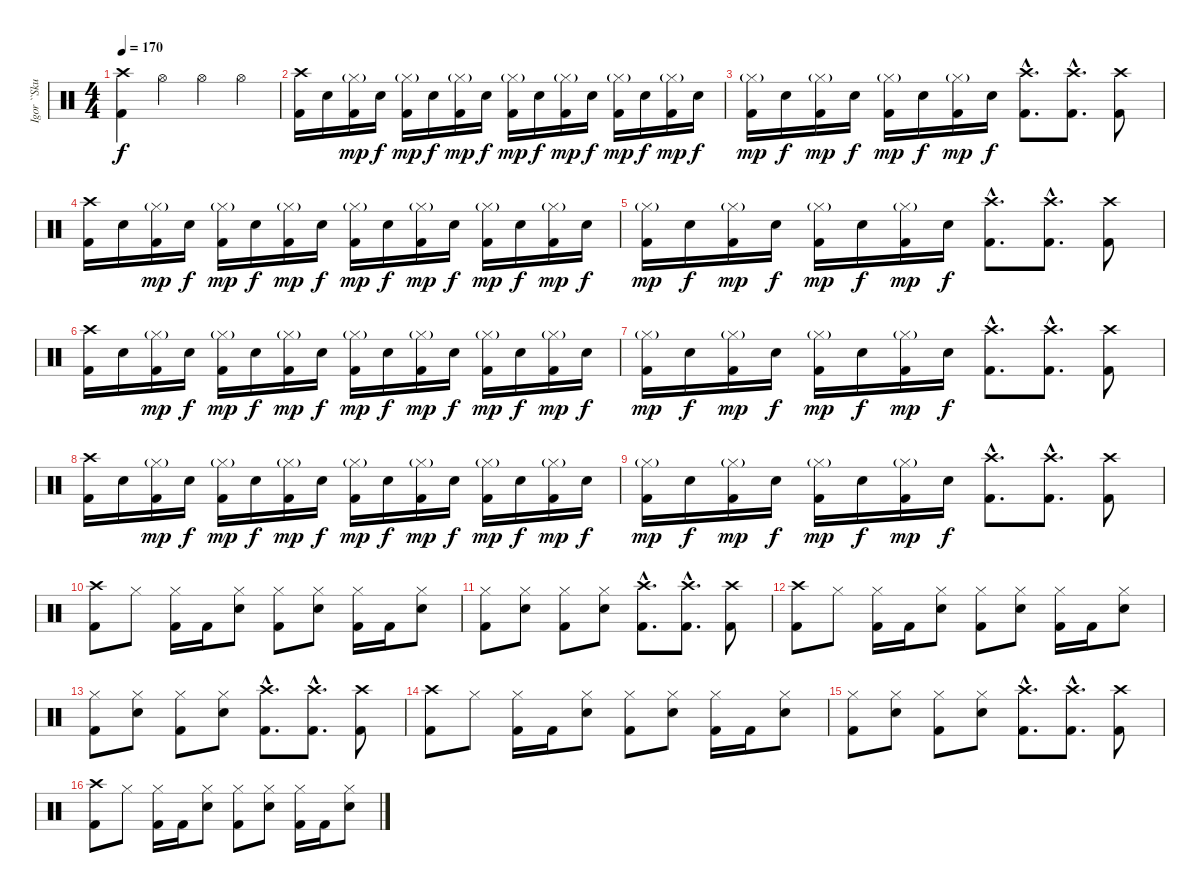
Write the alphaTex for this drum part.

\track ("Igor ``Skullcrusher`` Cavalera" "Igor ``Sku") {instrument percussion}
\staff {score}
\articulation defaults
\ts (4 4)
\tempo 170
\clef neutral
\ks c
("Crash high (hit)" "Kick (hit) 2").4{dy f} "Hi-Hat (open)".4 "Hi-Hat (open)".4 "Hi-Hat (open)".4 |
("Crash high (hit)" "Kick (hit) 2").16 "Electric Snare (hit)".16 ("Hi-Hat (closed)"{g} "Kick (hit) 2").16{dy mp} "Electric Snare (hit)".16{dy f} ("Hi-Hat (closed)"{g} "Kick (hit) 2").16{dy mp} "Electric Snare (hit)".16{dy f} ("Hi-Hat (closed)"{g} "Kick (hit) 2").16{dy mp} "Electric Snare (hit)".16{dy f} ("Hi-Hat (closed)"{g} "Kick (hit) 2").16{dy mp} "Electric Snare (hit)".16{dy f} ("Hi-Hat (closed)"{g} "Kick (hit) 2").16{dy mp} "Electric Snare (hit)".16{dy f} ("Hi-Hat (closed)"{g} "Kick (hit) 2").16{dy mp} "Electric Snare (hit)".16{dy f} ("Hi-Hat (closed)"{g} "Kick (hit) 2").16{dy mp} "Electric Snare (hit)".16{dy f} |
("Hi-Hat (closed)"{g} "Kick (hit) 2").16{dy mp} "Electric Snare (hit)".16{dy f} ("Hi-Hat (closed)"{g} "Kick (hit) 2").16{dy mp} "Electric Snare (hit)".16{dy f} ("Hi-Hat (closed)"{g} "Kick (hit) 2").16{dy mp} "Electric Snare (hit)".16{dy f} ("Hi-Hat (closed)"{g} "Kick (hit) 2").16{dy mp} "Electric Snare (hit)".16{dy f} ("Crash high (hit)"{hac} "Kick (hit) 2"{hac}).8{d} ("Crash high (hit)"{hac} "Kick (hit) 2"{hac}).8{d} ("Crash high (hit)" "Kick (hit) 2").8 |
("Crash high (hit)" "Kick (hit) 2").16 "Electric Snare (hit)".16 ("Hi-Hat (closed)"{g} "Kick (hit) 2").16{dy mp} "Electric Snare (hit)".16{dy f} ("Hi-Hat (closed)"{g} "Kick (hit) 2").16{dy mp} "Electric Snare (hit)".16{dy f} ("Hi-Hat (closed)"{g} "Kick (hit) 2").16{dy mp} "Electric Snare (hit)".16{dy f} ("Hi-Hat (closed)"{g} "Kick (hit) 2").16{dy mp} "Electric Snare (hit)".16{dy f} ("Hi-Hat (closed)"{g} "Kick (hit) 2").16{dy mp} "Electric Snare (hit)".16{dy f} ("Hi-Hat (closed)"{g} "Kick (hit) 2").16{dy mp} "Electric Snare (hit)".16{dy f} ("Hi-Hat (closed)"{g} "Kick (hit) 2").16{dy mp} "Electric Snare (hit)".16{dy f} |
("Hi-Hat (closed)"{g} "Kick (hit) 2").16{dy mp} "Electric Snare (hit)".16{dy f} ("Hi-Hat (closed)"{g} "Kick (hit) 2").16{dy mp} "Electric Snare (hit)".16{dy f} ("Hi-Hat (closed)"{g} "Kick (hit) 2").16{dy mp} "Electric Snare (hit)".16{dy f} ("Hi-Hat (closed)"{g} "Kick (hit) 2").16{dy mp} "Electric Snare (hit)".16{dy f} ("Crash high (hit)"{hac} "Kick (hit) 2"{hac}).8{d} ("Crash high (hit)"{hac} "Kick (hit) 2"{hac}).8{d} ("Crash high (hit)" "Kick (hit) 2").8 |
("Crash high (hit)" "Kick (hit) 2").16 "Electric Snare (hit)".16 ("Hi-Hat (closed)"{g} "Kick (hit) 2").16{dy mp} "Electric Snare (hit)".16{dy f} ("Hi-Hat (closed)"{g} "Kick (hit) 2").16{dy mp} "Electric Snare (hit)".16{dy f} ("Hi-Hat (closed)"{g} "Kick (hit) 2").16{dy mp} "Electric Snare (hit)".16{dy f} ("Hi-Hat (closed)"{g} "Kick (hit) 2").16{dy mp} "Electric Snare (hit)".16{dy f} ("Hi-Hat (closed)"{g} "Kick (hit) 2").16{dy mp} "Electric Snare (hit)".16{dy f} ("Hi-Hat (closed)"{g} "Kick (hit) 2").16{dy mp} "Electric Snare (hit)".16{dy f} ("Hi-Hat (closed)"{g} "Kick (hit) 2").16{dy mp} "Electric Snare (hit)".16{dy f} |
("Hi-Hat (closed)"{g} "Kick (hit) 2").16{dy mp} "Electric Snare (hit)".16{dy f} ("Hi-Hat (closed)"{g} "Kick (hit) 2").16{dy mp} "Electric Snare (hit)".16{dy f} ("Hi-Hat (closed)"{g} "Kick (hit) 2").16{dy mp} "Electric Snare (hit)".16{dy f} ("Hi-Hat (closed)"{g} "Kick (hit) 2").16{dy mp} "Electric Snare (hit)".16{dy f} ("Crash high (hit)"{hac} "Kick (hit) 2"{hac}).8{d} ("Crash high (hit)"{hac} "Kick (hit) 2"{hac}).8{d} ("Crash high (hit)" "Kick (hit) 2").8 |
("Crash high (hit)" "Kick (hit) 2").16 "Electric Snare (hit)".16 ("Hi-Hat (closed)"{g} "Kick (hit) 2").16{dy mp} "Electric Snare (hit)".16{dy f} ("Hi-Hat (closed)"{g} "Kick (hit) 2").16{dy mp} "Electric Snare (hit)".16{dy f} ("Hi-Hat (closed)"{g} "Kick (hit) 2").16{dy mp} "Electric Snare (hit)".16{dy f} ("Hi-Hat (closed)"{g} "Kick (hit) 2").16{dy mp} "Electric Snare (hit)".16{dy f} ("Hi-Hat (closed)"{g} "Kick (hit) 2").16{dy mp} "Electric Snare (hit)".16{dy f} ("Hi-Hat (closed)"{g} "Kick (hit) 2").16{dy mp} "Electric Snare (hit)".16{dy f} ("Hi-Hat (closed)"{g} "Kick (hit) 2").16{dy mp} "Electric Snare (hit)".16{dy f} |
("Hi-Hat (closed)"{g} "Kick (hit) 2").16{dy mp} "Electric Snare (hit)".16{dy f} ("Hi-Hat (closed)"{g} "Kick (hit) 2").16{dy mp} "Electric Snare (hit)".16{dy f} ("Hi-Hat (closed)"{g} "Kick (hit) 2").16{dy mp} "Electric Snare (hit)".16{dy f} ("Hi-Hat (closed)"{g} "Kick (hit) 2").16{dy mp} "Electric Snare (hit)".16{dy f} ("Crash high (hit)"{hac} "Kick (hit) 2"{hac}).8{d} ("Crash high (hit)"{hac} "Kick (hit) 2"{hac}).8{d} ("Crash high (hit)" "Kick (hit) 2").8 |
("Crash high (hit)" "Kick (hit) 2").8 "Hi-Hat (closed)".8 ("Hi-Hat (closed)" "Kick (hit) 2").16 "Kick (hit) 2".16 ("Hi-Hat (closed)" "Electric Snare (hit)").8 ("Hi-Hat (closed)" "Kick (hit) 2").8 ("Hi-Hat (closed)" "Electric Snare (hit)").8 ("Hi-Hat (closed)" "Kick (hit) 2").16 "Kick (hit) 2".16 ("Hi-Hat (closed)" "Electric Snare (hit)").8 |
("Hi-Hat (closed)" "Kick (hit) 2").8 ("Hi-Hat (closed)" "Electric Snare (hit)").8 ("Hi-Hat (closed)" "Kick (hit) 2").8 ("Hi-Hat (closed)" "Electric Snare (hit)").8 ("Crash high (hit)"{hac} "Kick (hit) 2"{hac}).8{d} ("Crash high (hit)"{hac} "Kick (hit) 2"{hac}).8{d} ("Crash high (hit)" "Kick (hit) 2").8 |
("Crash high (hit)" "Kick (hit) 2").8 "Hi-Hat (closed)".8 ("Hi-Hat (closed)" "Kick (hit) 2").16 "Kick (hit) 2".16 ("Hi-Hat (closed)" "Electric Snare (hit)").8 ("Hi-Hat (closed)" "Kick (hit) 2").8 ("Hi-Hat (closed)" "Electric Snare (hit)").8 ("Hi-Hat (closed)" "Kick (hit) 2").16 "Kick (hit) 2".16 ("Hi-Hat (closed)" "Electric Snare (hit)").8 |
("Hi-Hat (closed)" "Kick (hit) 2").8 ("Hi-Hat (closed)" "Electric Snare (hit)").8 ("Hi-Hat (closed)" "Kick (hit) 2").8 ("Hi-Hat (closed)" "Electric Snare (hit)").8 ("Crash high (hit)"{hac} "Kick (hit) 2"{hac}).8{d} ("Crash high (hit)"{hac} "Kick (hit) 2"{hac}).8{d} ("Crash high (hit)" "Kick (hit) 2").8 |
("Crash high (hit)" "Kick (hit) 2").8 "Hi-Hat (closed)".8 ("Hi-Hat (closed)" "Kick (hit) 2").16 "Kick (hit) 2".16 ("Hi-Hat (closed)" "Electric Snare (hit)").8 ("Hi-Hat (closed)" "Kick (hit) 2").8 ("Hi-Hat (closed)" "Electric Snare (hit)").8 ("Hi-Hat (closed)" "Kick (hit) 2").16 "Kick (hit) 2".16 ("Hi-Hat (closed)" "Electric Snare (hit)").8 |
("Hi-Hat (closed)" "Kick (hit) 2").8 ("Hi-Hat (closed)" "Electric Snare (hit)").8 ("Hi-Hat (closed)" "Kick (hit) 2").8 ("Hi-Hat (closed)" "Electric Snare (hit)").8 ("Crash high (hit)"{hac} "Kick (hit) 2"{hac}).8{d} ("Crash high (hit)"{hac} "Kick (hit) 2"{hac}).8{d} ("Crash high (hit)" "Kick (hit) 2").8 |
("Crash high (hit)" "Kick (hit) 2").8 "Hi-Hat (closed)".8 ("Hi-Hat (closed)" "Kick (hit) 2").16 "Kick (hit) 2".16 ("Hi-Hat (closed)" "Electric Snare (hit)").8 ("Hi-Hat (closed)" "Kick (hit) 2").8 ("Hi-Hat (closed)" "Electric Snare (hit)").8 ("Hi-Hat (closed)" "Kick (hit) 2").16 "Kick (hit) 2".16 ("Hi-Hat (closed)" "Electric Snare (hit)").8
